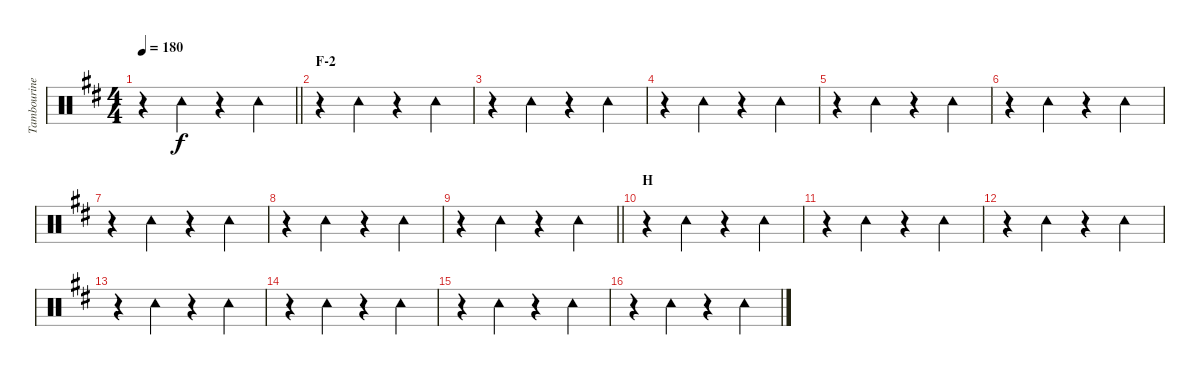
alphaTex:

\track ("Tambourine" "Tambourine") {instrument percussion}
\staff {score}
\articulation defaults
\ts (4 4)
\tempo 180
\clef neutral
\barLineRight lightlight
\ks d
r.4{dy f} "Tambourine (hit)".4 r.4 "Tambourine (hit)".4 |
\section ("" "F-2")
r.4 "Tambourine (hit)".4 r.4 "Tambourine (hit)".4 |
r.4 "Tambourine (hit)".4 r.4 "Tambourine (hit)".4 |
r.4 "Tambourine (hit)".4 r.4 "Tambourine (hit)".4 |
r.4 "Tambourine (hit)".4 r.4 "Tambourine (hit)".4 |
r.4 "Tambourine (hit)".4 r.4 "Tambourine (hit)".4 |
r.4 "Tambourine (hit)".4 r.4 "Tambourine (hit)".4 |
r.4 "Tambourine (hit)".4 r.4 "Tambourine (hit)".4 |
\barLineRight lightlight
r.4 "Tambourine (hit)".4 r.4 "Tambourine (hit)".4 |
\section ("" "H")
r.4 "Tambourine (hit)".4 r.4 "Tambourine (hit)".4 |
r.4 "Tambourine (hit)".4 r.4 "Tambourine (hit)".4 |
r.4 "Tambourine (hit)".4 r.4 "Tambourine (hit)".4 |
r.4 "Tambourine (hit)".4 r.4 "Tambourine (hit)".4 |
r.4 "Tambourine (hit)".4 r.4 "Tambourine (hit)".4 |
r.4 "Tambourine (hit)".4 r.4 "Tambourine (hit)".4 |
r.4 "Tambourine (hit)".4 r.4 "Tambourine (hit)".4
